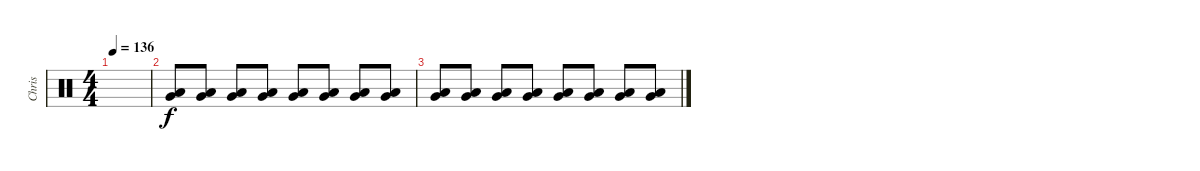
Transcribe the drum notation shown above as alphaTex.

\track ("Chris" "Chris") {instrument percussion}
\staff {score}
\articulation defaults
\ts (4 4)
\tempo 136
\clef neutral
\ks c
|
("Very Low Tom (hit)" "Low Floor Tom (hit)").8 ("Very Low Tom (hit)" "Low Floor Tom (hit)").8 ("Very Low Tom (hit)" "Low Floor Tom (hit)").8 ("Very Low Tom (hit)" "Low Floor Tom (hit)").8 ("Very Low Tom (hit)" "Low Floor Tom (hit)").8 ("Very Low Tom (hit)" "Low Floor Tom (hit)").8 ("Very Low Tom (hit)" "Low Floor Tom (hit)").8 ("Very Low Tom (hit)" "Low Floor Tom (hit)").8 |
("Very Low Tom (hit)" "Low Floor Tom (hit)").8 ("Very Low Tom (hit)" "Low Floor Tom (hit)").8 ("Very Low Tom (hit)" "Low Floor Tom (hit)").8 ("Very Low Tom (hit)" "Low Floor Tom (hit)").8 ("Very Low Tom (hit)" "Low Floor Tom (hit)").8 ("Very Low Tom (hit)" "Low Floor Tom (hit)").8 ("Very Low Tom (hit)" "Low Floor Tom (hit)").8 ("Very Low Tom (hit)" "Low Floor Tom (hit)").8
